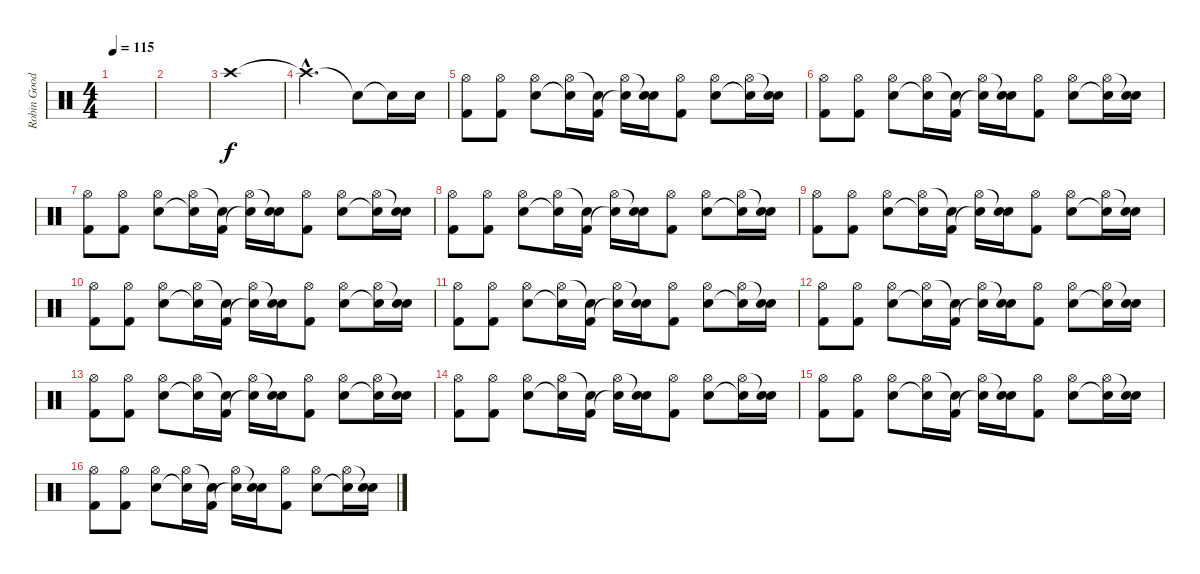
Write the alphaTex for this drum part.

\track ("Robin Goodridge" "Robin Good") {instrument percussion}
\staff {score}
\articulation defaults
\ts (4 4)
\tempo 115
\clef neutral
\ks c
|
|
"Crash high (hit)".1 |
"Crash high (hit)"{hac t}.2{d} "Snare (hit)"{t}.8 "Snare (hit)"{t}.16 "Snare (hit) 2".16 |
("Hi-Hat (open)" "Kick (hit) 2").8 ("Hi-Hat (open)" "Kick (hit) 2").8 ("Hi-Hat (open)" "Snare (hit) 2").8 ("Hi-Hat (open)" "Snare (hit)"{t}).16 ("Snare (hit)"{t} "Kick (hit) 2").16 ("Hi-Hat (open)" "Snare (hit)"{t}).16 ("Snare (hit)"{t} "Snare (hit) 2").16 ("Hi-Hat (open)" "Kick (hit) 2").8 ("Hi-Hat (open)" "Snare (hit) 2").8 ("Hi-Hat (open)" "Snare (hit) 2"{t}).16 ("Snare (hit)"{t} "Snare (hit) 2").16 |
("Hi-Hat (open)" "Kick (hit) 2").8 ("Hi-Hat (open)" "Kick (hit) 2").8 ("Hi-Hat (open)" "Snare (hit) 2").8 ("Hi-Hat (open)" "Snare (hit)"{t}).16 ("Snare (hit)"{t} "Kick (hit) 2").16 ("Hi-Hat (open)" "Snare (hit)"{t}).16 ("Snare (hit)"{t} "Snare (hit) 2").16 ("Hi-Hat (open)" "Kick (hit) 2").8 ("Hi-Hat (open)" "Snare (hit) 2").8 ("Hi-Hat (open)" "Snare (hit) 2"{t}).16 ("Snare (hit)"{t} "Snare (hit) 2").16 |
("Hi-Hat (open)" "Kick (hit) 2").8 ("Hi-Hat (open)" "Kick (hit) 2").8 ("Hi-Hat (open)" "Snare (hit) 2").8 ("Hi-Hat (open)" "Snare (hit)"{t}).16 ("Snare (hit)"{t} "Kick (hit) 2").16 ("Hi-Hat (open)" "Snare (hit)"{t}).16 ("Snare (hit)"{t} "Snare (hit) 2").16 ("Hi-Hat (open)" "Kick (hit) 2").8 ("Hi-Hat (open)" "Snare (hit) 2").8 ("Hi-Hat (open)" "Snare (hit) 2"{t}).16 ("Snare (hit)"{t} "Snare (hit) 2").16 |
("Hi-Hat (open)" "Kick (hit) 2").8 ("Hi-Hat (open)" "Kick (hit) 2").8 ("Hi-Hat (open)" "Snare (hit) 2").8 ("Hi-Hat (open)" "Snare (hit)"{t}).16 ("Snare (hit)"{t} "Kick (hit) 2").16 ("Hi-Hat (open)" "Snare (hit)"{t}).16 ("Snare (hit)"{t} "Snare (hit) 2").16 ("Hi-Hat (open)" "Kick (hit) 2").8 ("Hi-Hat (open)" "Snare (hit) 2").8 ("Hi-Hat (open)" "Snare (hit) 2"{t}).16 ("Snare (hit)"{t} "Snare (hit) 2").16 |
("Hi-Hat (open)" "Kick (hit) 2").8 ("Hi-Hat (open)" "Kick (hit) 2").8 ("Hi-Hat (open)" "Snare (hit) 2").8 ("Hi-Hat (open)" "Snare (hit)"{t}).16 ("Snare (hit)"{t} "Kick (hit) 2").16 ("Hi-Hat (open)" "Snare (hit)"{t}).16 ("Snare (hit)"{t} "Snare (hit) 2").16 ("Hi-Hat (open)" "Kick (hit) 2").8 ("Hi-Hat (open)" "Snare (hit) 2").8 ("Hi-Hat (open)" "Snare (hit) 2"{t}).16 ("Snare (hit)"{t} "Snare (hit) 2").16 |
("Hi-Hat (open)" "Kick (hit) 2").8 ("Hi-Hat (open)" "Kick (hit) 2").8 ("Hi-Hat (open)" "Snare (hit) 2").8 ("Hi-Hat (open)" "Snare (hit)"{t}).16 ("Snare (hit)"{t} "Kick (hit) 2").16 ("Hi-Hat (open)" "Snare (hit)"{t}).16 ("Snare (hit)"{t} "Snare (hit) 2").16 ("Hi-Hat (open)" "Kick (hit) 2").8 ("Hi-Hat (open)" "Snare (hit) 2").8 ("Hi-Hat (open)" "Snare (hit) 2"{t}).16 ("Snare (hit)"{t} "Snare (hit) 2").16 |
("Hi-Hat (open)" "Kick (hit) 2").8 ("Hi-Hat (open)" "Kick (hit) 2").8 ("Hi-Hat (open)" "Snare (hit) 2").8 ("Hi-Hat (open)" "Snare (hit)"{t}).16 ("Snare (hit)"{t} "Kick (hit) 2").16 ("Hi-Hat (open)" "Snare (hit)"{t}).16 ("Snare (hit)"{t} "Snare (hit) 2").16 ("Hi-Hat (open)" "Kick (hit) 2").8 ("Hi-Hat (open)" "Snare (hit) 2").8 ("Hi-Hat (open)" "Snare (hit) 2"{t}).16 ("Snare (hit)"{t} "Snare (hit) 2").16 |
("Hi-Hat (open)" "Kick (hit) 2").8 ("Hi-Hat (open)" "Kick (hit) 2").8 ("Hi-Hat (open)" "Snare (hit) 2").8 ("Hi-Hat (open)" "Snare (hit)"{t}).16 ("Snare (hit)"{t} "Kick (hit) 2").16 ("Hi-Hat (open)" "Snare (hit)"{t}).16 ("Snare (hit)"{t} "Snare (hit) 2").16 ("Hi-Hat (open)" "Kick (hit) 2").8 ("Hi-Hat (open)" "Snare (hit) 2").8 ("Hi-Hat (open)" "Snare (hit) 2"{t}).16 ("Snare (hit)"{t} "Snare (hit) 2").16 |
("Hi-Hat (open)" "Kick (hit) 2").8 ("Hi-Hat (open)" "Kick (hit) 2").8 ("Hi-Hat (open)" "Snare (hit) 2").8 ("Hi-Hat (open)" "Snare (hit)"{t}).16 ("Snare (hit)"{t} "Kick (hit) 2").16 ("Hi-Hat (open)" "Snare (hit)"{t}).16 ("Snare (hit)"{t} "Snare (hit) 2").16 ("Hi-Hat (open)" "Kick (hit) 2").8 ("Hi-Hat (open)" "Snare (hit) 2").8 ("Hi-Hat (open)" "Snare (hit) 2"{t}).16 ("Snare (hit)"{t} "Snare (hit) 2").16 |
("Hi-Hat (open)" "Kick (hit) 2").8 ("Hi-Hat (open)" "Kick (hit) 2").8 ("Hi-Hat (open)" "Snare (hit) 2").8 ("Hi-Hat (open)" "Snare (hit)"{t}).16 ("Snare (hit)"{t} "Kick (hit) 2").16 ("Hi-Hat (open)" "Snare (hit)"{t}).16 ("Snare (hit)"{t} "Snare (hit) 2").16 ("Hi-Hat (open)" "Kick (hit) 2").8 ("Hi-Hat (open)" "Snare (hit) 2").8 ("Hi-Hat (open)" "Snare (hit) 2"{t}).16 ("Snare (hit)"{t} "Snare (hit) 2").16 |
("Hi-Hat (open)" "Kick (hit) 2").8 ("Hi-Hat (open)" "Kick (hit) 2").8 ("Hi-Hat (open)" "Snare (hit) 2").8 ("Hi-Hat (open)" "Snare (hit)"{t}).16 ("Snare (hit)"{t} "Kick (hit) 2").16 ("Hi-Hat (open)" "Snare (hit)"{t}).16 ("Snare (hit)"{t} "Snare (hit) 2").16 ("Hi-Hat (open)" "Kick (hit) 2").8 ("Hi-Hat (open)" "Snare (hit) 2").8 ("Hi-Hat (open)" "Snare (hit) 2"{t}).16 ("Snare (hit)"{t} "Snare (hit) 2").16 |
("Hi-Hat (open)" "Kick (hit) 2").8 ("Hi-Hat (open)" "Kick (hit) 2").8 ("Hi-Hat (open)" "Snare (hit) 2").8 ("Hi-Hat (open)" "Snare (hit)"{t}).16 ("Snare (hit)"{t} "Kick (hit) 2").16 ("Hi-Hat (open)" "Snare (hit)"{t}).16 ("Snare (hit)"{t} "Snare (hit) 2").16 ("Hi-Hat (open)" "Kick (hit) 2").8 ("Hi-Hat (open)" "Snare (hit) 2").8 ("Hi-Hat (open)" "Snare (hit) 2"{t}).16 ("Snare (hit)"{t} "Snare (hit) 2").16
